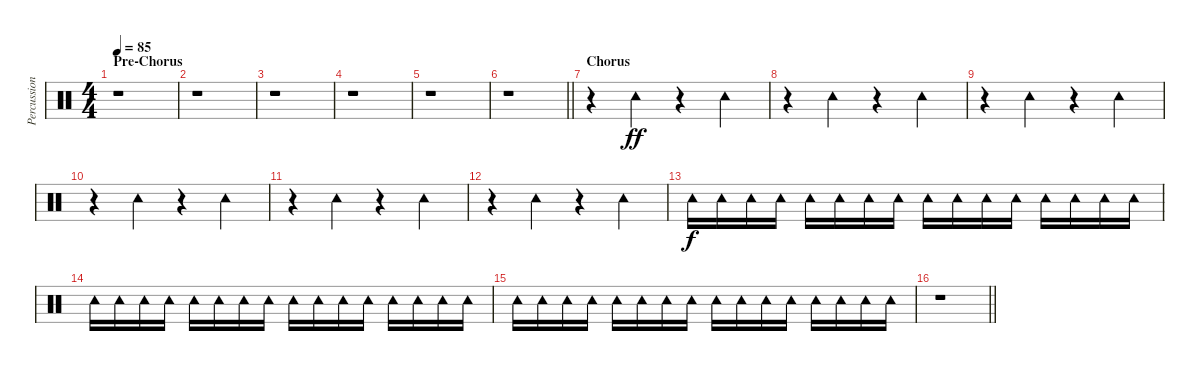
\track ("Percussions" "Percussion") {instrument percussion}
\staff {score}
\articulation defaults
\ts (4 4)
\section ("" "Pre-Chorus")
\tempo 85
\clef neutral
\ks c
r.1{dy mf} |
r.1 |
r.1 |
r.1 |
r.1 |
\barLineRight lightlight
r.1 |
\section ("" "Chorus")
r.4{volume 12 balance 8} "Tambourine (hit)".4{dy ff} r.4 "Tambourine (hit)".4 |
r.4 "Tambourine (hit)".4 r.4 "Tambourine (hit)".4 |
r.4 "Tambourine (hit)".4 r.4 "Tambourine (hit)".4 |
r.4 "Tambourine (hit)".4 r.4 "Tambourine (hit)".4 |
r.4 "Tambourine (hit)".4 r.4 "Tambourine (hit)".4 |
r.4 "Tambourine (hit)".4 r.4 "Tambourine (hit)".4 |
"Tambourine (hit)".16{dy f} "Tambourine (hit)".16 "Tambourine (hit)".16 "Tambourine (hit)".16 "Tambourine (hit)".16 "Tambourine (hit)".16 "Tambourine (hit)".16 "Tambourine (hit)".16 "Tambourine (hit)".16 "Tambourine (hit)".16 "Tambourine (hit)".16 "Tambourine (hit)".16 "Tambourine (hit)".16 "Tambourine (hit)".16 "Tambourine (hit)".16 "Tambourine (hit)".16 |
"Tambourine (hit)".16 "Tambourine (hit)".16 "Tambourine (hit)".16 "Tambourine (hit)".16 "Tambourine (hit)".16 "Tambourine (hit)".16 "Tambourine (hit)".16 "Tambourine (hit)".16 "Tambourine (hit)".16 "Tambourine (hit)".16 "Tambourine (hit)".16 "Tambourine (hit)".16 "Tambourine (hit)".16 "Tambourine (hit)".16 "Tambourine (hit)".16 "Tambourine (hit)".16 |
"Tambourine (hit)".16 "Tambourine (hit)".16 "Tambourine (hit)".16 "Tambourine (hit)".16 "Tambourine (hit)".16 "Tambourine (hit)".16 "Tambourine (hit)".16 "Tambourine (hit)".16 "Tambourine (hit)".16 "Tambourine (hit)".16 "Tambourine (hit)".16 "Tambourine (hit)".16 "Tambourine (hit)".16 "Tambourine (hit)".16 "Tambourine (hit)".16 "Tambourine (hit)".16 |
\barLineRight lightlight
r.1
